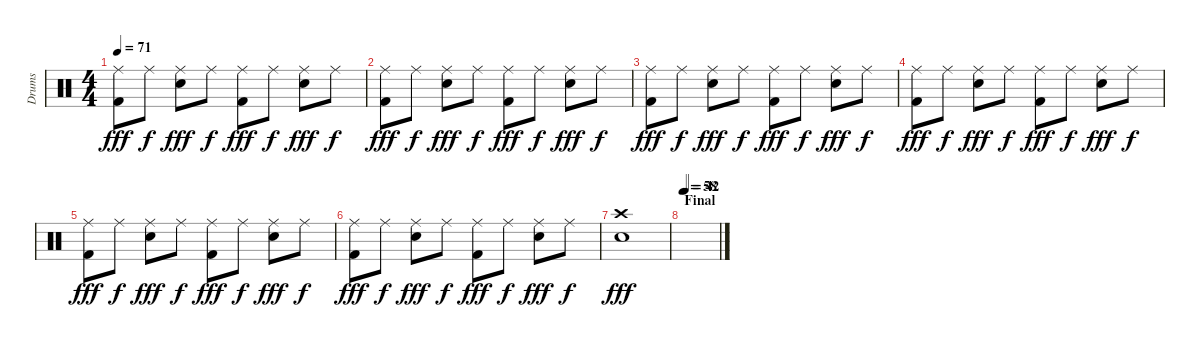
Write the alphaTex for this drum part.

\track ("Drums" "Drums") {instrument percussion}
\staff {score}
\articulation defaults
\ts (4 4)
\tempo 71
\clef neutral
\ks c
("Ride (middle)" "Kick (hit) 2").8{dy fff} "Ride (middle)".8{dy f} ("Ride (middle)" "Electric Snare (hit)").8{dy fff} "Ride (middle)".8{dy f} ("Ride (middle)" "Kick (hit) 2").8{dy fff} "Ride (middle)".8{dy f} ("Ride (middle)" "Electric Snare (hit)").8{dy fff} "Ride (middle)".8{dy f} |
("Ride (middle)" "Kick (hit) 2").8{dy fff} "Ride (middle)".8{dy f} ("Ride (middle)" "Electric Snare (hit)").8{dy fff} "Ride (middle)".8{dy f} ("Ride (middle)" "Kick (hit) 2").8{dy fff} "Ride (middle)".8{dy f} ("Ride (middle)" "Electric Snare (hit)").8{dy fff} "Ride (middle)".8{dy f} |
("Ride (middle)" "Kick (hit) 2").8{dy fff} "Ride (middle)".8{dy f} ("Ride (middle)" "Electric Snare (hit)").8{dy fff} "Ride (middle)".8{dy f} ("Ride (middle)" "Kick (hit) 2").8{dy fff} "Ride (middle)".8{dy f} ("Ride (middle)" "Electric Snare (hit)").8{dy fff} "Ride (middle)".8{dy f} |
("Ride (middle)" "Kick (hit) 2").8{dy fff} "Ride (middle)".8{dy f} ("Ride (middle)" "Electric Snare (hit)").8{dy fff} "Ride (middle)".8{dy f} ("Ride (middle)" "Kick (hit) 2").8{dy fff} "Ride (middle)".8{dy f} ("Ride (middle)" "Electric Snare (hit)").8{dy fff} "Ride (middle)".8{dy f} |
("Ride (middle)" "Kick (hit) 2").8{dy fff} "Ride (middle)".8{dy f} ("Ride (middle)" "Electric Snare (hit)").8{dy fff} "Ride (middle)".8{dy f} ("Ride (middle)" "Kick (hit) 2").8{dy fff} "Ride (middle)".8{dy f} ("Ride (middle)" "Electric Snare (hit)").8{dy fff} "Ride (middle)".8{dy f} |
("Ride (middle)" "Kick (hit) 2").8{dy fff} "Ride (middle)".8{dy f} ("Ride (middle)" "Electric Snare (hit)").8{dy fff} "Ride (middle)".8{dy f} ("Ride (middle)" "Kick (hit) 2").8{dy fff} "Ride (middle)".8{dy f} ("Ride (middle)" "Electric Snare (hit)").8{dy fff} "Ride (middle)".8{dy f} |
("Crash high (hit)" "Electric Snare (hit)").1{dy fff} |
\section ("" "Final")
\tempo 58
\tempo (42 0.0625)
